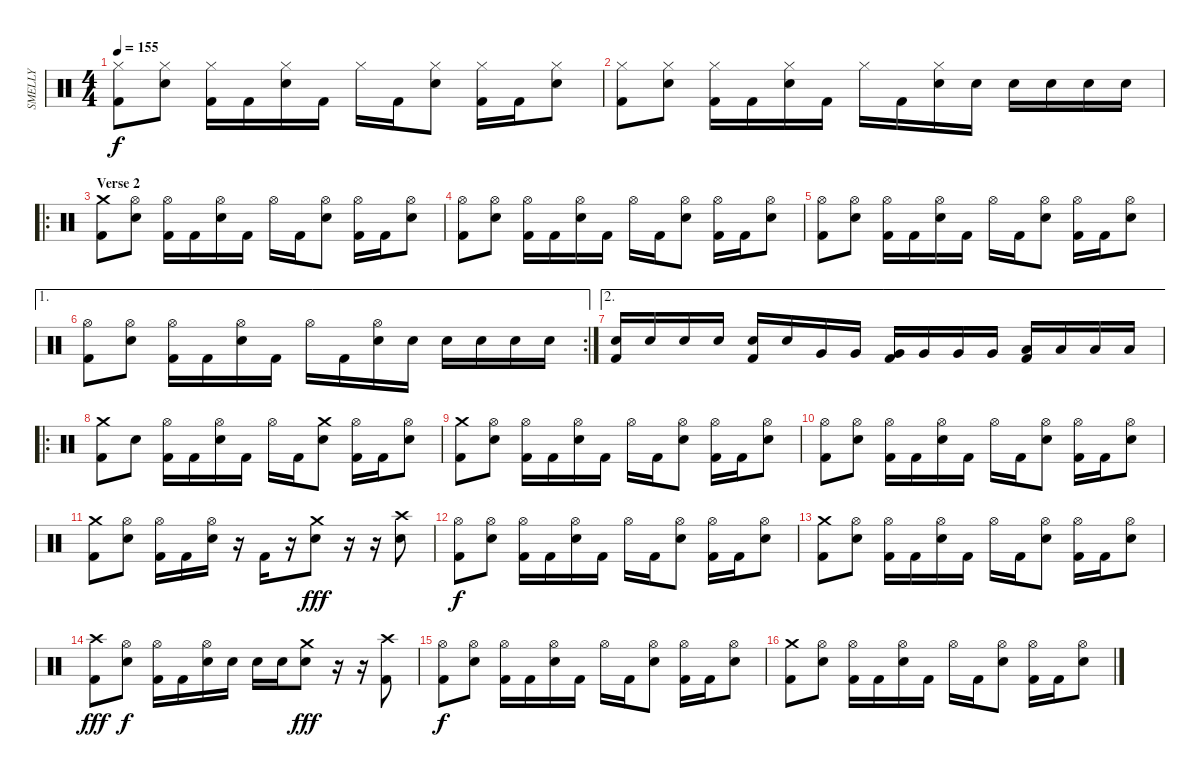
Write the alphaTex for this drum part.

\track ("SMELLY" "SMELLY") {instrument percussion}
\staff {score}
\articulation defaults
\ts (4 4)
\tempo 155
\clef neutral
\ks c
("Hi-Hat (closed)" "Kick (hit) 2").8{dy f} ("Hi-Hat (closed)" "Electric Snare (hit)").8 ("Hi-Hat (closed)" "Kick (hit) 2").16 "Kick (hit) 2".16 ("Hi-Hat (closed)" "Electric Snare (hit)").16 "Kick (hit) 2".16 "Hi-Hat (closed)".16 "Kick (hit) 2".16 ("Hi-Hat (closed)" "Electric Snare (hit)").8 ("Hi-Hat (closed)" "Kick (hit) 2").16 "Kick (hit) 2".16 ("Hi-Hat (closed)" "Electric Snare (hit)").8 |
("Hi-Hat (closed)" "Kick (hit) 2").8 ("Hi-Hat (closed)" "Electric Snare (hit)").8 ("Hi-Hat (closed)" "Kick (hit) 2").16 "Kick (hit) 2".16 ("Hi-Hat (closed)" "Electric Snare (hit)").16 "Kick (hit) 2".16 "Hi-Hat (closed)".16 "Kick (hit) 2".16 ("Hi-Hat (closed)" "Electric Snare (hit)").16 "Electric Snare (hit)".16 "Electric Snare (hit)".16 "Electric Snare (hit)".16 "Electric Snare (hit)".16 "Electric Snare (hit)".16 |
\ro
\section ("" "Verse 2")
("Crash medium (hit)" "Kick (hit) 2").8 ("Hi-Hat (open)" "Electric Snare (hit)").8 ("Hi-Hat (open)" "Kick (hit) 2").16 "Kick (hit) 2".16 ("Hi-Hat (open)" "Electric Snare (hit)").16 "Kick (hit) 2".16 "Hi-Hat (open)".16 "Kick (hit) 2".16 ("Hi-Hat (open)" "Electric Snare (hit)").8 ("Hi-Hat (open)" "Kick (hit) 2").16 "Kick (hit) 2".16 ("Hi-Hat (open)" "Electric Snare (hit)").8 |
("Hi-Hat (open)" "Kick (hit) 2").8 ("Hi-Hat (open)" "Electric Snare (hit)").8 ("Hi-Hat (open)" "Kick (hit) 2").16 "Kick (hit) 2".16 ("Hi-Hat (open)" "Electric Snare (hit)").16 "Kick (hit) 2".16 "Hi-Hat (open)".16 "Kick (hit) 2".16 ("Hi-Hat (open)" "Electric Snare (hit)").8 ("Hi-Hat (open)" "Kick (hit) 2").16 "Kick (hit) 2".16 ("Hi-Hat (open)" "Electric Snare (hit)").8 |
("Hi-Hat (open)" "Kick (hit) 2").8 ("Hi-Hat (open)" "Electric Snare (hit)").8 ("Hi-Hat (open)" "Kick (hit) 2").16 "Kick (hit) 2".16 ("Hi-Hat (open)" "Electric Snare (hit)").16 "Kick (hit) 2".16 "Hi-Hat (open)".16 "Kick (hit) 2".16 ("Hi-Hat (open)" "Electric Snare (hit)").8 ("Hi-Hat (open)" "Kick (hit) 2").16 "Kick (hit) 2".16 ("Hi-Hat (open)" "Electric Snare (hit)").8 |
\ae 1
\rc 2
("Hi-Hat (open)" "Kick (hit) 2").8 ("Hi-Hat (open)" "Electric Snare (hit)").8 ("Hi-Hat (open)" "Kick (hit) 2").16 "Kick (hit) 2".16 ("Hi-Hat (open)" "Electric Snare (hit)").16 "Kick (hit) 2".16 "Hi-Hat (open)".16 "Kick (hit) 2".16 ("Hi-Hat (open)" "Electric Snare (hit)").16 "Electric Snare (hit)".16 "Electric Snare (hit)".16 "Electric Snare (hit)".16 "Electric Snare (hit)".16 "Electric Snare (hit)".16 |
\ae 2
("Electric Snare (hit)" "Kick (hit) 2").16 "Electric Snare (hit)".16 "Electric Snare (hit)".16 "Electric Snare (hit)".16 ("Electric Snare (hit)" "Kick (hit) 2").16 "Electric Snare (hit)".16 "Very Low Tom (hit)".16 "Very Low Tom (hit)".16 ("Very Low Tom (hit)" "Kick (hit) 2").16 "Very Low Tom (hit)".16 "Very Low Tom (hit)".16 "Very Low Tom (hit)".16 ("Low Floor Tom (hit)" "Kick (hit) 2").16 "Low Floor Tom (hit)".16 "Low Floor Tom (hit)".16 "Low Floor Tom (hit)".16 |
\ro
("Crash medium (hit)" "Kick (hit) 2").8 "Electric Snare (hit)".8 ("Hi-Hat (open)" "Kick (hit) 2").16 "Kick (hit) 2".16 ("Hi-Hat (open)" "Electric Snare (hit)").16 "Kick (hit) 2".16 "Hi-Hat (open)".16 "Kick (hit) 2".16 ("Crash medium (hit)" "Electric Snare (hit)").8 ("Hi-Hat (open)" "Kick (hit) 2").16 "Kick (hit) 2".16 ("Hi-Hat (open)" "Electric Snare (hit)").8 |
("Crash medium (hit)" "Kick (hit) 2").8 ("Hi-Hat (open)" "Electric Snare (hit)").8 ("Hi-Hat (open)" "Kick (hit) 2").16 "Kick (hit) 2".16 ("Hi-Hat (open)" "Electric Snare (hit)").16 "Kick (hit) 2".16 "Hi-Hat (open)".16 "Kick (hit) 2".16 ("Hi-Hat (open)" "Electric Snare (hit)").8 ("Hi-Hat (open)" "Kick (hit) 2").16 "Kick (hit) 2".16 ("Hi-Hat (open)" "Electric Snare (hit)").8 |
("Hi-Hat (open)" "Kick (hit) 2").8 ("Hi-Hat (open)" "Electric Snare (hit)").8 ("Hi-Hat (open)" "Kick (hit) 2").16 "Kick (hit) 2".16 ("Hi-Hat (open)" "Electric Snare (hit)").16 "Kick (hit) 2".16 "Hi-Hat (open)".16 "Kick (hit) 2".16 ("Hi-Hat (open)" "Electric Snare (hit)").8 ("Hi-Hat (open)" "Kick (hit) 2").16 "Kick (hit) 2".16 ("Hi-Hat (open)" "Electric Snare (hit)").8 |
("Crash medium (hit)" "Kick (hit) 2").8 ("Hi-Hat (open)" "Electric Snare (hit)").8 ("Hi-Hat (open)" "Kick (hit) 2").16 "Kick (hit) 2".16 ("Hi-Hat (open)" "Electric Snare (hit)").16 r.16 "Kick (hit) 2".16 r.16 ("Crash medium (hit)" "Electric Snare (hit)").8{dy fff} r.16 r.16 ("Crash high (hit)" "Electric Snare (hit)").8 |
("Hi-Hat (open)" "Kick (hit) 2").8{dy f} ("Hi-Hat (open)" "Electric Snare (hit)").8 ("Hi-Hat (open)" "Kick (hit) 2").16 "Kick (hit) 2".16 ("Hi-Hat (open)" "Electric Snare (hit)").16 "Kick (hit) 2".16 "Hi-Hat (open)".16 "Kick (hit) 2".16 ("Hi-Hat (open)" "Electric Snare (hit)").8 ("Hi-Hat (open)" "Kick (hit) 2").16 "Kick (hit) 2".16 ("Hi-Hat (open)" "Electric Snare (hit)").8 |
("Crash medium (hit)" "Kick (hit) 2").8 ("Hi-Hat (open)" "Electric Snare (hit)").8 ("Hi-Hat (open)" "Kick (hit) 2").16 "Kick (hit) 2".16 ("Hi-Hat (open)" "Electric Snare (hit)").16 "Kick (hit) 2".16 "Hi-Hat (open)".16 "Kick (hit) 2".16 ("Hi-Hat (open)" "Electric Snare (hit)").8 ("Hi-Hat (open)" "Kick (hit) 2").16 "Kick (hit) 2".16 ("Hi-Hat (open)" "Electric Snare (hit)").8 |
("Crash high (hit)" "Kick (hit) 2").8{dy fff} ("Hi-Hat (open)" "Electric Snare (hit)").8{dy f} ("Hi-Hat (open)" "Kick (hit) 2").16 "Kick (hit) 2".16 ("Hi-Hat (open)" "Electric Snare (hit)").16 "Electric Snare (hit)".16 "Electric Snare (hit)".16 "Electric Snare (hit)".16 ("Crash medium (hit)" "Electric Snare (hit)").8{dy fff} r.16 r.16 ("Crash high (hit)" "Kick (hit) 2").8 |
("Hi-Hat (open)" "Kick (hit) 2").8{dy f} ("Hi-Hat (open)" "Electric Snare (hit)").8 ("Hi-Hat (open)" "Kick (hit) 2").16 "Kick (hit) 2".16 ("Hi-Hat (open)" "Electric Snare (hit)").16 "Kick (hit) 2".16 "Hi-Hat (open)".16 "Kick (hit) 2".16 ("Hi-Hat (open)" "Electric Snare (hit)").8 ("Hi-Hat (open)" "Kick (hit) 2").16 "Kick (hit) 2".16 ("Hi-Hat (open)" "Electric Snare (hit)").8 |
("Crash medium (hit)" "Kick (hit) 2").8 ("Hi-Hat (open)" "Electric Snare (hit)").8 ("Hi-Hat (open)" "Kick (hit) 2").16 "Kick (hit) 2".16 ("Hi-Hat (open)" "Electric Snare (hit)").16 "Kick (hit) 2".16 "Hi-Hat (open)".16 "Kick (hit) 2".16 ("Hi-Hat (open)" "Electric Snare (hit)").8 ("Hi-Hat (open)" "Kick (hit) 2").16 "Kick (hit) 2".16 ("Hi-Hat (open)" "Electric Snare (hit)").8
